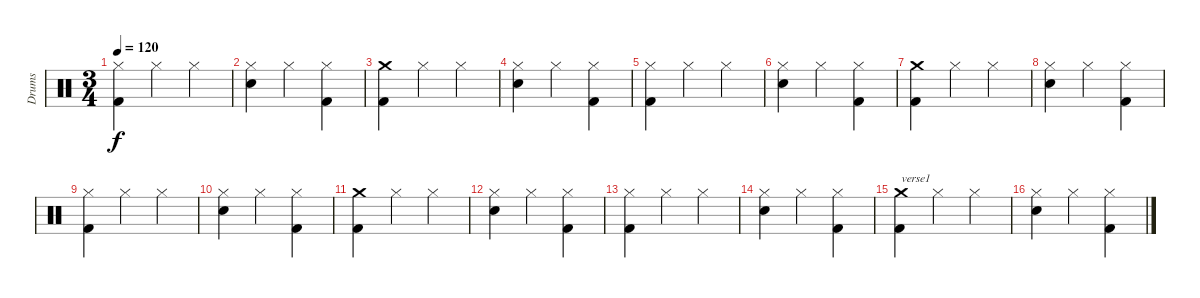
\track ("Drums" "Drums") {instrument percussion}
\staff {score}
\articulation defaults
\ts (3 4)
\tempo 120
\clef neutral
\ks c
("Hi-Hat (closed)" "Kick (hit) 2").4{dy f} "Hi-Hat (closed)".4 "Hi-Hat (closed)".4 |
("Hi-Hat (closed)" "Electric Snare (hit)").4 "Hi-Hat (closed)".4 ("Hi-Hat (closed)" "Kick (hit) 2").4 |
("Crash medium (hit)" "Kick (hit) 2").4 "Hi-Hat (closed)".4 "Hi-Hat (closed)".4 |
("Hi-Hat (closed)" "Electric Snare (hit)").4 "Hi-Hat (closed)".4 ("Hi-Hat (closed)" "Kick (hit) 2").4 |
("Hi-Hat (closed)" "Kick (hit) 2").4 "Hi-Hat (closed)".4 "Hi-Hat (closed)".4 |
("Hi-Hat (closed)" "Electric Snare (hit)").4 "Hi-Hat (closed)".4 ("Hi-Hat (closed)" "Kick (hit) 2").4 |
("Crash medium (hit)" "Kick (hit) 2").4 "Hi-Hat (closed)".4 "Hi-Hat (closed)".4 |
("Hi-Hat (closed)" "Electric Snare (hit)").4 "Hi-Hat (closed)".4 ("Hi-Hat (closed)" "Kick (hit) 2").4 |
("Hi-Hat (closed)" "Kick (hit) 2").4 "Hi-Hat (closed)".4 "Hi-Hat (closed)".4 |
("Hi-Hat (closed)" "Electric Snare (hit)").4 "Hi-Hat (closed)".4 ("Hi-Hat (closed)" "Kick (hit) 2").4 |
("Crash medium (hit)" "Kick (hit) 2").4 "Hi-Hat (closed)".4 "Hi-Hat (closed)".4 |
("Hi-Hat (closed)" "Electric Snare (hit)").4 "Hi-Hat (closed)".4 ("Hi-Hat (closed)" "Kick (hit) 2").4 |
("Hi-Hat (closed)" "Kick (hit) 2").4 "Hi-Hat (closed)".4 "Hi-Hat (closed)".4 |
("Hi-Hat (closed)" "Electric Snare (hit)").4 "Hi-Hat (closed)".4 ("Hi-Hat (closed)" "Kick (hit) 2").4 |
("Crash medium (hit)" "Kick (hit) 2").4{txt "verse1"} "Hi-Hat (closed)".4 "Hi-Hat (closed)".4 |
("Hi-Hat (closed)" "Electric Snare (hit)").4 "Hi-Hat (closed)".4 ("Hi-Hat (closed)" "Kick (hit) 2").4
